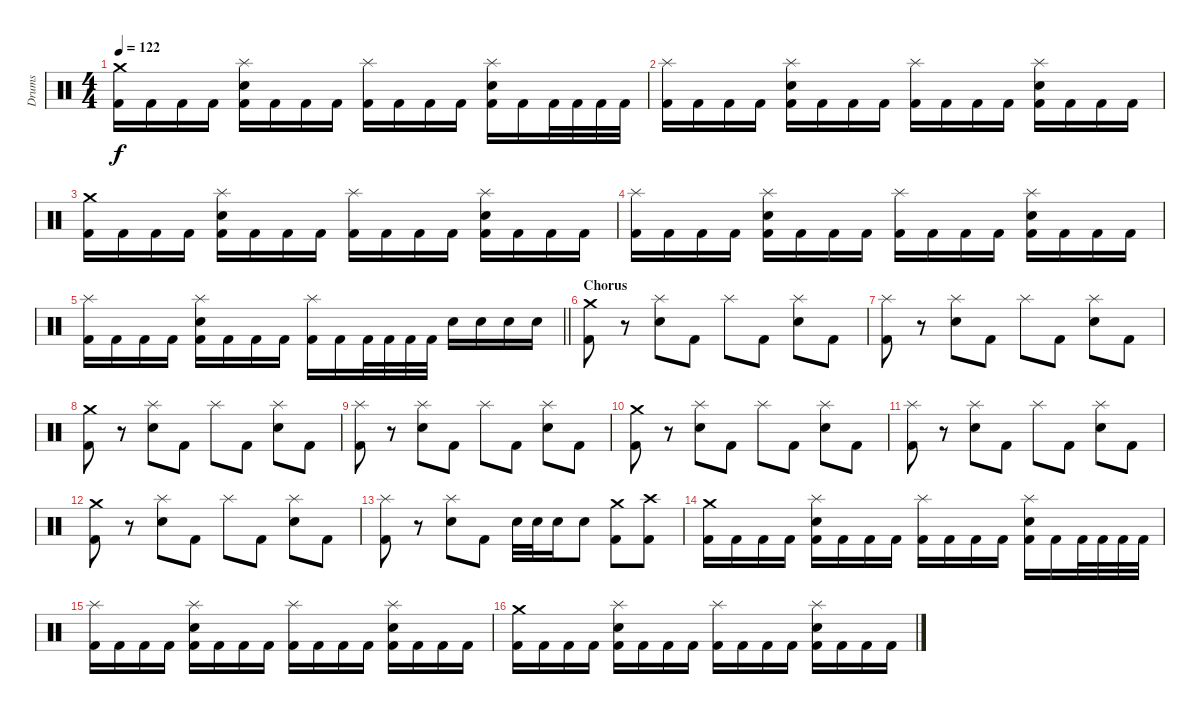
\track ("Drums" "Drums") {instrument percussion}
\staff {score}
\articulation defaults
\ts (4 4)
\tempo 122
\clef neutral
\ks c
("Kick (hit) 2" "Crash medium (hit)").16{dy f} "Kick (hit) 2".16 "Kick (hit) 2".16 "Kick (hit) 2".16 ("Kick (hit) 2" "Snare (hit) 2" "Splash (hit)").16 "Kick (hit) 2".16 "Kick (hit) 2".16 "Kick (hit) 2".16 ("Kick (hit) 2" "Splash (hit)").16 "Kick (hit) 2".16 "Kick (hit) 2".16 "Kick (hit) 2".16 ("Kick (hit) 2" "Snare (hit) 2" "Splash (hit)").16 "Kick (hit) 2".16 "Kick (hit) 2".32 "Kick (hit) 2".32 "Kick (hit) 2".32 "Kick (hit) 2".32 |
("Kick (hit) 2" "Splash (hit)").16 "Kick (hit) 2".16 "Kick (hit) 2".16 "Kick (hit) 2".16 ("Kick (hit) 2" "Snare (hit) 2" "Splash (hit)").16 "Kick (hit) 2".16 "Kick (hit) 2".16 "Kick (hit) 2".16 ("Kick (hit) 2" "Splash (hit)").16 "Kick (hit) 2".16 "Kick (hit) 2".16 "Kick (hit) 2".16 ("Kick (hit) 2" "Snare (hit) 2" "Splash (hit)").16 "Kick (hit) 2".16 "Kick (hit) 2".16 "Kick (hit) 2".16 |
("Kick (hit) 2" "Crash medium (hit)").16 "Kick (hit) 2".16 "Kick (hit) 2".16 "Kick (hit) 2".16 ("Kick (hit) 2" "Snare (hit) 2" "Splash (hit)").16 "Kick (hit) 2".16 "Kick (hit) 2".16 "Kick (hit) 2".16 ("Kick (hit) 2" "Splash (hit)").16 "Kick (hit) 2".16 "Kick (hit) 2".16 "Kick (hit) 2".16 ("Kick (hit) 2" "Snare (hit) 2" "Splash (hit)").16 "Kick (hit) 2".16 "Kick (hit) 2".16 "Kick (hit) 2".16 |
("Kick (hit) 2" "Splash (hit)").16 "Kick (hit) 2".16 "Kick (hit) 2".16 "Kick (hit) 2".16 ("Kick (hit) 2" "Snare (hit) 2" "Splash (hit)").16 "Kick (hit) 2".16 "Kick (hit) 2".16 "Kick (hit) 2".16 ("Kick (hit) 2" "Splash (hit)").16 "Kick (hit) 2".16 "Kick (hit) 2".16 "Kick (hit) 2".16 ("Kick (hit) 2" "Snare (hit) 2" "Splash (hit)").16 "Kick (hit) 2".16 "Kick (hit) 2".16 "Kick (hit) 2".16 |
\barLineRight lightlight
("Kick (hit) 2" "Splash (hit)").16 "Kick (hit) 2".16 "Kick (hit) 2".16 "Kick (hit) 2".16 ("Kick (hit) 2" "Snare (hit) 2" "Splash (hit)").16 "Kick (hit) 2".16 "Kick (hit) 2".16 "Kick (hit) 2".16 ("Kick (hit) 2" "Splash (hit)").16 "Kick (hit) 2".16 "Kick (hit) 2".32 "Kick (hit) 2".32 "Kick (hit) 2".32 "Kick (hit) 2".32 "Snare (hit) 2".16 "Snare (hit) 2".16 "Snare (hit) 2".16 "Snare (hit) 2".16 |
\section ("" "Chorus")
("Kick (hit) 2" "Crash medium (hit)").8 r.8 ("Snare (hit) 2" "Splash (hit)").8 "Kick (hit) 2".8 "Splash (hit)".8 "Kick (hit) 2".8 ("Snare (hit) 2" "Splash (hit)").8 "Kick (hit) 2".8 |
("Kick (hit) 2" "Splash (hit)").8 r.8 ("Snare (hit) 2" "Splash (hit)").8 "Kick (hit) 2".8 "Splash (hit)".8 "Kick (hit) 2".8 ("Snare (hit) 2" "Splash (hit)").8 "Kick (hit) 2".8 |
("Kick (hit) 2" "Crash medium (hit)").8 r.8 ("Snare (hit) 2" "Splash (hit)").8 "Kick (hit) 2".8 "Splash (hit)".8 "Kick (hit) 2".8 ("Snare (hit) 2" "Splash (hit)").8 "Kick (hit) 2".8 |
("Kick (hit) 2" "Splash (hit)").8 r.8 ("Snare (hit) 2" "Splash (hit)").8 "Kick (hit) 2".8 "Splash (hit)".8 "Kick (hit) 2".8 ("Snare (hit) 2" "Splash (hit)").8 "Kick (hit) 2".8 |
("Kick (hit) 2" "Crash medium (hit)").8 r.8 ("Snare (hit) 2" "Splash (hit)").8 "Kick (hit) 2".8 "Splash (hit)".8 "Kick (hit) 2".8 ("Snare (hit) 2" "Splash (hit)").8 "Kick (hit) 2".8 |
("Kick (hit) 2" "Splash (hit)").8 r.8 ("Snare (hit) 2" "Splash (hit)").8 "Kick (hit) 2".8 "Splash (hit)".8 "Kick (hit) 2".8 ("Snare (hit) 2" "Splash (hit)").8 "Kick (hit) 2".8 |
("Kick (hit) 2" "Crash medium (hit)").8 r.8 ("Snare (hit) 2" "Splash (hit)").8 "Kick (hit) 2".8 "Splash (hit)".8 "Kick (hit) 2".8 ("Snare (hit) 2" "Splash (hit)").8 "Kick (hit) 2".8 |
("Kick (hit) 2" "Splash (hit)").8 r.8 ("Snare (hit) 2" "Splash (hit)").8 "Kick (hit) 2".8 "Snare (hit) 2".32 "Snare (hit) 2".32 "Snare (hit) 2".16 "Snare (hit) 2".8 ("Kick (hit) 2" "Crash medium (hit)").8 ("Kick (hit) 2" "Crash high (hit)").8 |
("Kick (hit) 2" "Crash medium (hit)").16 "Kick (hit) 2".16 "Kick (hit) 2".16 "Kick (hit) 2".16 ("Kick (hit) 2" "Snare (hit) 2" "Splash (hit)").16 "Kick (hit) 2".16 "Kick (hit) 2".16 "Kick (hit) 2".16 ("Kick (hit) 2" "Splash (hit)").16 "Kick (hit) 2".16 "Kick (hit) 2".16 "Kick (hit) 2".16 ("Kick (hit) 2" "Snare (hit) 2" "Splash (hit)").16 "Kick (hit) 2".16 "Kick (hit) 2".32 "Kick (hit) 2".32 "Kick (hit) 2".32 "Kick (hit) 2".32 |
("Kick (hit) 2" "Splash (hit)").16 "Kick (hit) 2".16 "Kick (hit) 2".16 "Kick (hit) 2".16 ("Kick (hit) 2" "Snare (hit) 2" "Splash (hit)").16 "Kick (hit) 2".16 "Kick (hit) 2".16 "Kick (hit) 2".16 ("Kick (hit) 2" "Splash (hit)").16 "Kick (hit) 2".16 "Kick (hit) 2".16 "Kick (hit) 2".16 ("Kick (hit) 2" "Snare (hit) 2" "Splash (hit)").16 "Kick (hit) 2".16 "Kick (hit) 2".16 "Kick (hit) 2".16 |
("Kick (hit) 2" "Crash medium (hit)").16 "Kick (hit) 2".16 "Kick (hit) 2".16 "Kick (hit) 2".16 ("Kick (hit) 2" "Snare (hit) 2" "Splash (hit)").16 "Kick (hit) 2".16 "Kick (hit) 2".16 "Kick (hit) 2".16 ("Kick (hit) 2" "Splash (hit)").16 "Kick (hit) 2".16 "Kick (hit) 2".16 "Kick (hit) 2".16 ("Kick (hit) 2" "Snare (hit) 2" "Splash (hit)").16 "Kick (hit) 2".16 "Kick (hit) 2".16 "Kick (hit) 2".16
